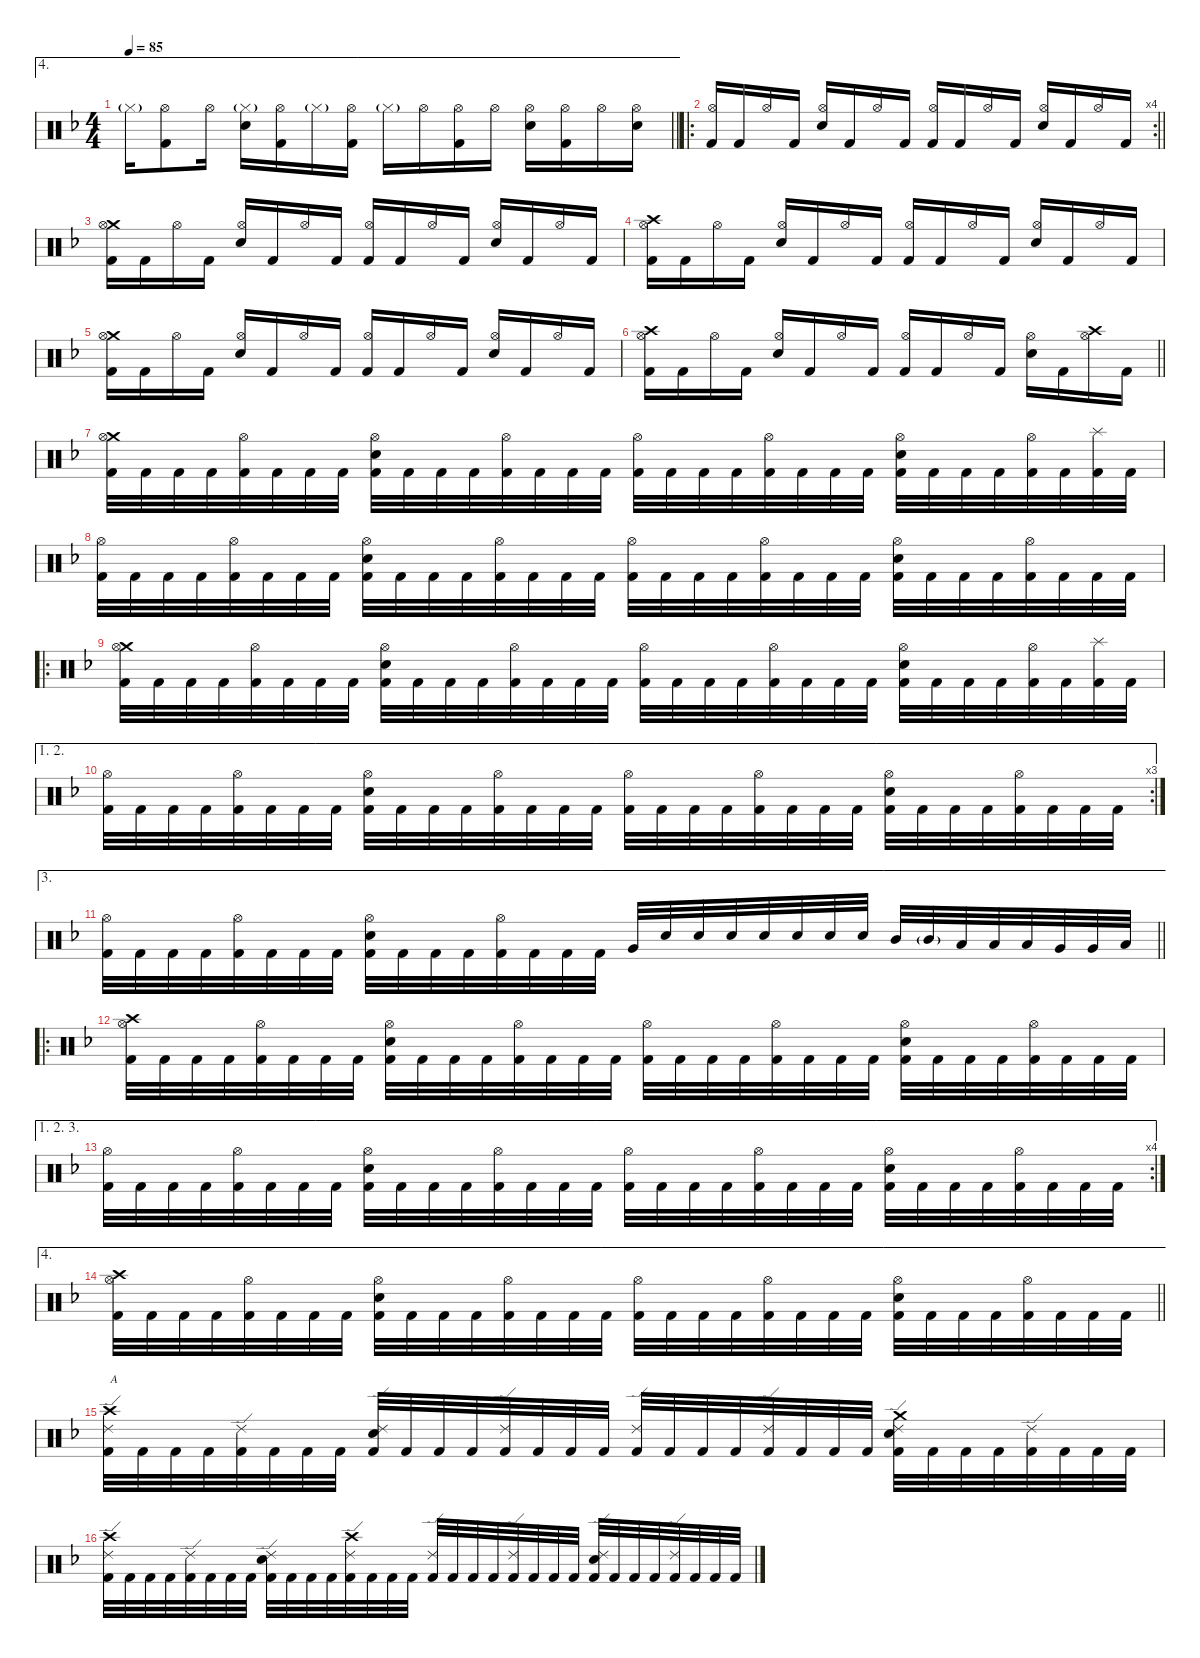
\defaultSystemsLayout 4
\hideDynamics
\bracketExtendMode nobrackets
\singleTrackTrackNamePolicy hidden
\multiTrackTrackNamePolicy hidden
\firstSystemTrackNameMode fullname
\firstSystemTrackNameOrientation horizontal
\otherSystemsTrackNameOrientation horizontal
\track ("Martin Lopez - Drums" "drm.") {instrument percussion}
\staff {score}
\articulation defaults
\ae 4
\ts (4 4)
\tempo 85
\clef neutral
\barLineRight lightlight
\ks f "Hi-Hat (closed)"{g acc forcenatural}.16{dy mf beam Down}
("Hi-Hat (open)"{acc forcenatural} "Kick (hit) 2"{acc forcenatural}).8{dy f beam Down} "Hi-Hat (open)"{acc forcenatural}.16{beam Down} ("Hi-Hat (closed)"{g acc forcenatural} "Snare (hit) 2"{acc forcenatural}).16{beam Down} ("Hi-Hat (open)"{acc forcenatural} "Kick (hit) 2"{acc forcenatural}).16{beam Down} "Hi-Hat (closed)"{g acc forcenatural}.16{dy mf beam Down} ("Hi-Hat (open)"{acc forcenatural} "Kick (hit) 2"{acc forcenatural}).16{dy f beam Down} "Hi-Hat (closed)"{g acc forcenatural}.16{dy mf beam Down} "Hi-Hat (open)"{acc forcenatural}.16{dy f beam Down} ("Hi-Hat (open)"{acc forcenatural} "Kick (hit) 2"{acc forcenatural}).16{beam Down} "Hi-Hat (open)"{acc forcenatural}.16{beam Down} ("Hi-Hat (open)"{acc forcenatural} "Snare (hit) 2"{acc forcenatural}).16{beam Down} ("Hi-Hat (open)"{acc forcenatural} "Kick (hit) 2"{acc forcenatural}).16{beam Down} "Hi-Hat (open)"{acc forcenatural}.16{beam Down} ("Hi-Hat (open)"{acc forcenatural} "Snare (hit) 2"{acc forcenatural}).16{beam Down} |
\ro
\rc 4
\barLineRight lightlight
("Hi-Hat (open)"{acc forcenatural} "Kick (hit) 2"{acc forcenatural}).16{beam Up} "Kick (hit) 2"{acc forcenatural}.16{beam Up} "Hi-Hat (open)"{acc forcenatural}.16{beam Up} "Kick (hit) 2"{acc forcenatural}.16{beam Up} ("Hi-Hat (open)"{acc forcenatural} "Snare (hit) 2"{acc forcenatural}).16{beam Up} "Kick (hit) 2"{acc forcenatural}.16{beam Up} "Hi-Hat (open)"{acc forcenatural}.16{beam Up} "Kick (hit) 2"{acc forcenatural}.16{beam Up} ("Hi-Hat (open)"{acc forcenatural} "Kick (hit) 2"{acc forcenatural}).16{beam Up} "Kick (hit) 2"{acc forcenatural}.16{beam Up} "Hi-Hat (open)"{acc forcenatural}.16{beam Up} "Kick (hit) 2"{acc forcenatural}.16{beam Up} ("Hi-Hat (open)"{acc forcenatural} "Snare (hit) 2"{acc forcenatural}).16{beam Up} "Kick (hit) 2"{acc forcenatural}.16{beam Up} "Hi-Hat (open)"{acc forcenatural}.16{beam Up} "Kick (hit) 2"{acc forcenatural}.16{beam Up} |
("Crash medium (hit)"{acc forcenatural} "Hi-Hat (open)"{acc forcenatural} "Kick (hit) 2"{acc forcenatural}).16{beam Down} "Kick (hit) 2"{acc forcenatural}.16{beam Down} "Hi-Hat (open)"{acc forcenatural}.16{beam Down} "Kick (hit) 2"{acc forcenatural}.16{beam Down} ("Hi-Hat (open)"{acc forcenatural} "Snare (hit) 2"{acc forcenatural}).16{beam Up} "Kick (hit) 2"{acc forcenatural}.16{beam Up} "Hi-Hat (open)"{acc forcenatural}.16{beam Up} "Kick (hit) 2"{acc forcenatural}.16{beam Up} ("Hi-Hat (open)"{acc forcenatural} "Kick (hit) 2"{acc forcenatural}).16{beam Up} "Kick (hit) 2"{acc forcenatural}.16{beam Up} "Hi-Hat (open)"{acc forcenatural}.16{beam Up} "Kick (hit) 2"{acc forcenatural}.16{beam Up} ("Hi-Hat (open)"{acc forcenatural} "Snare (hit) 2"{acc forcenatural}).16{beam Up} "Kick (hit) 2"{acc forcenatural}.16{beam Up} "Hi-Hat (open)"{acc forcenatural}.16{beam Up} "Kick (hit) 2"{acc forcenatural}.16{beam Up} |
("Crash high (hit)"{acc forcenatural} "Hi-Hat (open)"{acc forcenatural} "Kick (hit) 2"{acc forcenatural}).16{beam Down} "Kick (hit) 2"{acc forcenatural}.16{beam Down} "Hi-Hat (open)"{acc forcenatural}.16{beam Down} "Kick (hit) 2"{acc forcenatural}.16{beam Down} ("Hi-Hat (open)"{acc forcenatural} "Snare (hit) 2"{acc forcenatural}).16{beam Up} "Kick (hit) 2"{acc forcenatural}.16{beam Up} "Hi-Hat (open)"{acc forcenatural}.16{beam Up} "Kick (hit) 2"{acc forcenatural}.16{beam Up} ("Hi-Hat (open)"{acc forcenatural} "Kick (hit) 2"{acc forcenatural}).16{beam Up} "Kick (hit) 2"{acc forcenatural}.16{beam Up} "Hi-Hat (open)"{acc forcenatural}.16{beam Up} "Kick (hit) 2"{acc forcenatural}.16{beam Up} ("Hi-Hat (open)"{acc forcenatural} "Snare (hit) 2"{acc forcenatural}).16{beam Up} "Kick (hit) 2"{acc forcenatural}.16{beam Up} "Hi-Hat (open)"{acc forcenatural}.16{beam Up} "Kick (hit) 2"{acc forcenatural}.16{beam Up} |
("Crash medium (hit)"{acc forcenatural} "Hi-Hat (open)"{acc forcenatural} "Kick (hit) 2"{acc forcenatural}).16{beam Down} "Kick (hit) 2"{acc forcenatural}.16{beam Down} "Hi-Hat (open)"{acc forcenatural}.16{beam Down} "Kick (hit) 2"{acc forcenatural}.16{beam Down} ("Hi-Hat (open)"{acc forcenatural} "Snare (hit) 2"{acc forcenatural}).16{beam Up} "Kick (hit) 2"{acc forcenatural}.16{beam Up} "Hi-Hat (open)"{acc forcenatural}.16{beam Up} "Kick (hit) 2"{acc forcenatural}.16{beam Up} ("Hi-Hat (open)"{acc forcenatural} "Kick (hit) 2"{acc forcenatural}).16{beam Up} "Kick (hit) 2"{acc forcenatural}.16{beam Up} "Hi-Hat (open)"{acc forcenatural}.16{beam Up} "Kick (hit) 2"{acc forcenatural}.16{beam Up} ("Hi-Hat (open)"{acc forcenatural} "Snare (hit) 2"{acc forcenatural}).16{beam Up} "Kick (hit) 2"{acc forcenatural}.16{beam Up} "Hi-Hat (open)"{acc forcenatural}.16{beam Up} "Kick (hit) 2"{acc forcenatural}.16{beam Up} |
\barLineRight lightlight
("Crash high (hit)"{acc forcenatural} "Hi-Hat (open)"{acc forcenatural} "Kick (hit) 2"{acc forcenatural}).16{beam Down} "Kick (hit) 2"{acc forcenatural}.16{beam Down} "Hi-Hat (open)"{acc forcenatural}.16{beam Down} "Kick (hit) 2"{acc forcenatural}.16{beam Down} ("Hi-Hat (open)"{acc forcenatural} "Snare (hit) 2"{acc forcenatural}).16{beam Up} "Kick (hit) 2"{acc forcenatural}.16{beam Up} "Hi-Hat (open)"{acc forcenatural}.16{beam Up} "Kick (hit) 2"{acc forcenatural}.16{beam Up} ("Hi-Hat (open)"{acc forcenatural} "Kick (hit) 2"{acc forcenatural}).16{beam Up} "Kick (hit) 2"{acc forcenatural}.16{beam Up} "Hi-Hat (open)"{acc forcenatural}.16{beam Up} "Kick (hit) 2"{acc forcenatural}.16{beam Up} ("Hi-Hat (open)"{acc forcenatural} "Snare (hit) 2"{acc forcenatural}).16{beam Down} "Kick (hit) 2"{acc forcenatural}.16{beam Down} ("Crash high (hit)"{acc forcenatural} "Hi-Hat (open)"{acc forcenatural}).16{beam Down} "Kick (hit) 2"{acc forcenatural}.16{beam Down} |
("Crash medium (hit)"{acc forcenatural} "Hi-Hat (open)"{acc forcenatural} "Kick (hit) 2"{acc forcenatural}).32{beam Down} "Kick (hit) 2"{acc forcenatural}.32{beam Down} "Kick (hit) 2"{acc forcenatural}.32{beam Down} "Kick (hit) 2"{acc forcenatural}.32{beam Down} ("Hi-Hat (open)"{acc forcenatural} "Kick (hit) 2"{acc forcenatural}).32{beam Down} "Kick (hit) 2"{acc forcenatural}.32{beam Down} "Kick (hit) 2"{acc forcenatural}.32{beam Down} "Kick (hit) 2"{acc forcenatural}.32{beam Down} ("Hi-Hat (open)"{acc forcenatural} "Snare (hit) 2"{acc forcenatural} "Kick (hit) 2"{acc forcenatural}).32{beam Down} "Kick (hit) 2"{acc forcenatural}.32{beam Down} "Kick (hit) 2"{acc forcenatural}.32{beam Down} "Kick (hit) 2"{acc forcenatural}.32{beam Down} ("Hi-Hat (open)"{acc forcenatural} "Kick (hit) 2"{acc forcenatural}).32{beam Down} "Kick (hit) 2"{acc forcenatural}.32{beam Down} "Kick (hit) 2"{acc forcenatural}.32{beam Down} "Kick (hit) 2"{acc forcenatural}.32{beam Down} ("Hi-Hat (open)"{acc forcenatural} "Kick (hit) 2"{acc forcenatural}).32{beam Down} "Kick (hit) 2"{acc forcenatural}.32{beam Down} "Kick (hit) 2"{acc forcenatural}.32{beam Down} "Kick (hit) 2"{acc forcenatural}.32{beam Down} ("Hi-Hat (open)"{acc forcenatural} "Kick (hit) 2"{acc forcenatural}).32{beam Down} "Kick (hit) 2"{acc forcenatural}.32{beam Down} "Kick (hit) 2"{acc forcenatural}.32{beam Down} "Kick (hit) 2"{acc forcenatural}.32{beam Down} ("Hi-Hat (open)"{acc forcenatural} "Snare (hit) 2"{acc forcenatural} "Kick (hit) 2"{acc forcenatural}).32{beam Down} "Kick (hit) 2"{acc forcenatural}.32{beam Down} "Kick (hit) 2"{acc forcenatural}.32{beam Down} "Kick (hit) 2"{acc forcenatural}.32{beam Down} ("Hi-Hat (open)"{acc forcenatural} "Kick (hit) 2"{acc forcenatural}).32{beam Down} "Kick (hit) 2"{acc forcenatural}.32{beam Down} ("Splash (hit)"{acc forcenatural} "Kick (hit) 2"{acc forcenatural}).32{beam Down} "Kick (hit) 2"{acc forcenatural}.32{beam Down} |
("Hi-Hat (open)"{acc forcenatural} "Kick (hit) 2"{acc forcenatural}).32{beam Down} "Kick (hit) 2"{acc forcenatural}.32{beam Down} "Kick (hit) 2"{acc forcenatural}.32{beam Down} "Kick (hit) 2"{acc forcenatural}.32{beam Down} ("Hi-Hat (open)"{acc forcenatural} "Kick (hit) 2"{acc forcenatural}).32{beam Down} "Kick (hit) 2"{acc forcenatural}.32{beam Down} "Kick (hit) 2"{acc forcenatural}.32{beam Down} "Kick (hit) 2"{acc forcenatural}.32{beam Down} ("Hi-Hat (open)"{acc forcenatural} "Snare (hit) 2"{acc forcenatural} "Kick (hit) 2"{acc forcenatural}).32{beam Down} "Kick (hit) 2"{acc forcenatural}.32{beam Down} "Kick (hit) 2"{acc forcenatural}.32{beam Down} "Kick (hit) 2"{acc forcenatural}.32{beam Down} ("Hi-Hat (open)"{acc forcenatural} "Kick (hit) 2"{acc forcenatural}).32{beam Down} "Kick (hit) 2"{acc forcenatural}.32{beam Down} "Kick (hit) 2"{acc forcenatural}.32{beam Down} "Kick (hit) 2"{acc forcenatural}.32{beam Down} ("Hi-Hat (open)"{acc forcenatural} "Kick (hit) 2"{acc forcenatural}).32{beam Down} "Kick (hit) 2"{acc forcenatural}.32{beam Down} "Kick (hit) 2"{acc forcenatural}.32{beam Down} "Kick (hit) 2"{acc forcenatural}.32{beam Down} ("Hi-Hat (open)"{acc forcenatural} "Kick (hit) 2"{acc forcenatural}).32{beam Down} "Kick (hit) 2"{acc forcenatural}.32{beam Down} "Kick (hit) 2"{acc forcenatural}.32{beam Down} "Kick (hit) 2"{acc forcenatural}.32{beam Down} ("Hi-Hat (open)"{acc forcenatural} "Snare (hit) 2"{acc forcenatural} "Kick (hit) 2"{acc forcenatural}).32{beam Down} "Kick (hit) 2"{acc forcenatural}.32{beam Down} "Kick (hit) 2"{acc forcenatural}.32{beam Down} "Kick (hit) 2"{acc forcenatural}.32{beam Down} ("Hi-Hat (open)"{acc forcenatural} "Kick (hit) 2"{acc forcenatural}).32{beam Down} "Kick (hit) 2"{acc forcenatural}.32{beam Down} "Kick (hit) 2"{acc forcenatural}.32{beam Down} "Kick (hit) 2"{acc forcenatural}.32{beam Down} |
\ro
("Crash medium (hit)"{acc forcenatural} "Hi-Hat (open)"{acc forcenatural} "Kick (hit) 2"{acc forcenatural}).32{beam Down} "Kick (hit) 2"{acc forcenatural}.32{beam Down} "Kick (hit) 2"{acc forcenatural}.32{beam Down} "Kick (hit) 2"{acc forcenatural}.32{beam Down} ("Hi-Hat (open)"{acc forcenatural} "Kick (hit) 2"{acc forcenatural}).32{beam Down} "Kick (hit) 2"{acc forcenatural}.32{beam Down} "Kick (hit) 2"{acc forcenatural}.32{beam Down} "Kick (hit) 2"{acc forcenatural}.32{beam Down} ("Hi-Hat (open)"{acc forcenatural} "Snare (hit) 2"{acc forcenatural} "Kick (hit) 2"{acc forcenatural}).32{beam Down} "Kick (hit) 2"{acc forcenatural}.32{beam Down} "Kick (hit) 2"{acc forcenatural}.32{beam Down} "Kick (hit) 2"{acc forcenatural}.32{beam Down} ("Hi-Hat (open)"{acc forcenatural} "Kick (hit) 2"{acc forcenatural}).32{beam Down} "Kick (hit) 2"{acc forcenatural}.32{beam Down} "Kick (hit) 2"{acc forcenatural}.32{beam Down} "Kick (hit) 2"{acc forcenatural}.32{beam Down} ("Hi-Hat (open)"{acc forcenatural} "Kick (hit) 2"{acc forcenatural}).32{beam Down} "Kick (hit) 2"{acc forcenatural}.32{beam Down} "Kick (hit) 2"{acc forcenatural}.32{beam Down} "Kick (hit) 2"{acc forcenatural}.32{beam Down} ("Hi-Hat (open)"{acc forcenatural} "Kick (hit) 2"{acc forcenatural}).32{beam Down} "Kick (hit) 2"{acc forcenatural}.32{beam Down} "Kick (hit) 2"{acc forcenatural}.32{beam Down} "Kick (hit) 2"{acc forcenatural}.32{beam Down} ("Hi-Hat (open)"{acc forcenatural} "Snare (hit) 2"{acc forcenatural} "Kick (hit) 2"{acc forcenatural}).32{beam Down} "Kick (hit) 2"{acc forcenatural}.32{beam Down} "Kick (hit) 2"{acc forcenatural}.32{beam Down} "Kick (hit) 2"{acc forcenatural}.32{beam Down} ("Hi-Hat (open)"{acc forcenatural} "Kick (hit) 2"{acc forcenatural}).32{beam Down} "Kick (hit) 2"{acc forcenatural}.32{beam Down} ("Splash (hit)"{acc forcenatural} "Kick (hit) 2"{acc forcenatural}).32{beam Down} "Kick (hit) 2"{acc forcenatural}.32{beam Down} |
\ae (1 2)
\rc 3
("Hi-Hat (open)"{acc forcenatural} "Kick (hit) 2"{acc forcenatural}).32{beam Down} "Kick (hit) 2"{acc forcenatural}.32{beam Down} "Kick (hit) 2"{acc forcenatural}.32{beam Down} "Kick (hit) 2"{acc forcenatural}.32{beam Down} ("Hi-Hat (open)"{acc forcenatural} "Kick (hit) 2"{acc forcenatural}).32{beam Down} "Kick (hit) 2"{acc forcenatural}.32{beam Down} "Kick (hit) 2"{acc forcenatural}.32{beam Down} "Kick (hit) 2"{acc forcenatural}.32{beam Down} ("Hi-Hat (open)"{acc forcenatural} "Snare (hit) 2"{acc forcenatural} "Kick (hit) 2"{acc forcenatural}).32{beam Down} "Kick (hit) 2"{acc forcenatural}.32{beam Down} "Kick (hit) 2"{acc forcenatural}.32{beam Down} "Kick (hit) 2"{acc forcenatural}.32{beam Down} ("Hi-Hat (open)"{acc forcenatural} "Kick (hit) 2"{acc forcenatural}).32{beam Down} "Kick (hit) 2"{acc forcenatural}.32{beam Down} "Kick (hit) 2"{acc forcenatural}.32{beam Down} "Kick (hit) 2"{acc forcenatural}.32{beam Down} ("Hi-Hat (open)"{acc forcenatural} "Kick (hit) 2"{acc forcenatural}).32{beam Down} "Kick (hit) 2"{acc forcenatural}.32{beam Down} "Kick (hit) 2"{acc forcenatural}.32{beam Down} "Kick (hit) 2"{acc forcenatural}.32{beam Down} ("Hi-Hat (open)"{acc forcenatural} "Kick (hit) 2"{acc forcenatural}).32{beam Down} "Kick (hit) 2"{acc forcenatural}.32{beam Down} "Kick (hit) 2"{acc forcenatural}.32{beam Down} "Kick (hit) 2"{acc forcenatural}.32{beam Down} ("Hi-Hat (open)"{acc forcenatural} "Snare (hit) 2"{acc forcenatural} "Kick (hit) 2"{acc forcenatural}).32{beam Down} "Kick (hit) 2"{acc forcenatural}.32{beam Down} "Kick (hit) 2"{acc forcenatural}.32{beam Down} "Kick (hit) 2"{acc forcenatural}.32{beam Down} ("Hi-Hat (open)"{acc forcenatural} "Kick (hit) 2"{acc forcenatural}).32{beam Down} "Kick (hit) 2"{acc forcenatural}.32{beam Down} "Kick (hit) 2"{acc forcenatural}.32{beam Down} "Kick (hit) 2"{acc forcenatural}.32{beam Down} |
\ae 3
\barLineRight lightlight
("Hi-Hat (open)"{acc forcenatural} "Kick (hit) 2"{acc forcenatural}).32{beam Down} "Kick (hit) 2"{acc forcenatural}.32{beam Down} "Kick (hit) 2"{acc forcenatural}.32{beam Down} "Kick (hit) 2"{acc forcenatural}.32{beam Down} ("Hi-Hat (open)"{acc forcenatural} "Kick (hit) 2"{acc forcenatural}).32{beam Down} "Kick (hit) 2"{acc forcenatural}.32{beam Down} "Kick (hit) 2"{acc forcenatural}.32{beam Down} "Kick (hit) 2"{acc forcenatural}.32{beam Down} ("Hi-Hat (open)"{acc forcenatural} "Snare (hit) 2"{acc forcenatural} "Kick (hit) 2"{acc forcenatural}).32{beam Down} "Kick (hit) 2"{acc forcenatural}.32{beam Down} "Kick (hit) 2"{acc forcenatural}.32{beam Down} "Kick (hit) 2"{acc forcenatural}.32{beam Down} ("Hi-Hat (open)"{acc forcenatural} "Kick (hit) 2"{acc forcenatural}).32{beam Down} "Kick (hit) 2"{acc forcenatural}.32{beam Down} "Kick (hit) 2"{acc forcenatural}.32{beam Down} "Kick (hit) 2"{acc forcenatural}.32{beam Down} "Very Low Tom (hit)"{acc forcenatural}.32{beam Up} "Snare (hit) 2"{acc forcenatural}.32{beam Up} "Snare (hit) 2"{acc forcenatural}.32{beam Up} "Snare (hit) 2"{acc forcenatural}.32{beam Up} "Snare (hit) 2"{acc forcenatural}.32{beam Up} "Snare (hit) 2"{acc forcenatural}.32{beam Up} "Snare (hit) 2"{acc forcenatural}.32{beam Up} "Snare (hit) 2"{acc forcenatural}.32{beam Up} "Mid Tom (hit)"{acc forcenatural}.32{beam Up} "Mid Tom (hit)"{g acc forcenatural}.32{dy mf beam Up} "Low Tom (hit)"{acc forcenatural}.32{dy f beam Up} "Low Tom (hit)"{acc forcenatural}.32{beam Up} "Low Tom (hit)"{acc forcenatural}.32{beam Up} "Very Low Tom (hit)"{acc forcenatural}.32{beam Up} "Very Low Tom (hit)"{acc forcenatural}.32{beam Up} "Low Floor Tom (hit)"{acc forcenatural}.32{beam Up} |
\ro
("Crash high (hit)"{acc forcenatural} "Hi-Hat (open)"{acc forcenatural} "Kick (hit) 2"{acc forcenatural}).32{beam Down} "Kick (hit) 2"{acc forcenatural}.32{beam Down} "Kick (hit) 2"{acc forcenatural}.32{beam Down} "Kick (hit) 2"{acc forcenatural}.32{beam Down} ("Hi-Hat (open)"{acc forcenatural} "Kick (hit) 2"{acc forcenatural}).32{beam Down} "Kick (hit) 2"{acc forcenatural}.32{beam Down} "Kick (hit) 2"{acc forcenatural}.32{beam Down} "Kick (hit) 2"{acc forcenatural}.32{beam Down} ("Hi-Hat (open)"{acc forcenatural} "Snare (hit) 2"{acc forcenatural} "Kick (hit) 2"{acc forcenatural}).32{beam Down} "Kick (hit) 2"{acc forcenatural}.32{beam Down} "Kick (hit) 2"{acc forcenatural}.32{beam Down} "Kick (hit) 2"{acc forcenatural}.32{beam Down} ("Hi-Hat (open)"{acc forcenatural} "Kick (hit) 2"{acc forcenatural}).32{beam Down} "Kick (hit) 2"{acc forcenatural}.32{beam Down} "Kick (hit) 2"{acc forcenatural}.32{beam Down} "Kick (hit) 2"{acc forcenatural}.32{beam Down} ("Hi-Hat (open)"{acc forcenatural} "Kick (hit) 2"{acc forcenatural}).32{beam Down} "Kick (hit) 2"{acc forcenatural}.32{beam Down} "Kick (hit) 2"{acc forcenatural}.32{beam Down} "Kick (hit) 2"{acc forcenatural}.32{beam Down} ("Hi-Hat (open)"{acc forcenatural} "Kick (hit) 2"{acc forcenatural}).32{beam Down} "Kick (hit) 2"{acc forcenatural}.32{beam Down} "Kick (hit) 2"{acc forcenatural}.32{beam Down} "Kick (hit) 2"{acc forcenatural}.32{beam Down} ("Hi-Hat (open)"{acc forcenatural} "Snare (hit) 2"{acc forcenatural} "Kick (hit) 2"{acc forcenatural}).32{beam Down} "Kick (hit) 2"{acc forcenatural}.32{beam Down} "Kick (hit) 2"{acc forcenatural}.32{beam Down} "Kick (hit) 2"{acc forcenatural}.32{beam Down} ("Hi-Hat (open)"{acc forcenatural} "Kick (hit) 2"{acc forcenatural}).32{beam Down} "Kick (hit) 2"{acc forcenatural}.32{beam Down} "Kick (hit) 2"{acc forcenatural}.32{beam Down} "Kick (hit) 2"{acc forcenatural}.32{beam Down} |
\ae (1 2 3)
\rc 4
("Hi-Hat (open)"{acc forcenatural} "Kick (hit) 2"{acc forcenatural}).32{beam Down} "Kick (hit) 2"{acc forcenatural}.32{beam Down} "Kick (hit) 2"{acc forcenatural}.32{beam Down} "Kick (hit) 2"{acc forcenatural}.32{beam Down} ("Hi-Hat (open)"{acc forcenatural} "Kick (hit) 2"{acc forcenatural}).32{beam Down} "Kick (hit) 2"{acc forcenatural}.32{beam Down} "Kick (hit) 2"{acc forcenatural}.32{beam Down} "Kick (hit) 2"{acc forcenatural}.32{beam Down} ("Hi-Hat (open)"{acc forcenatural} "Snare (hit) 2"{acc forcenatural} "Kick (hit) 2"{acc forcenatural}).32{beam Down} "Kick (hit) 2"{acc forcenatural}.32{beam Down} "Kick (hit) 2"{acc forcenatural}.32{beam Down} "Kick (hit) 2"{acc forcenatural}.32{beam Down} ("Hi-Hat (open)"{acc forcenatural} "Kick (hit) 2"{acc forcenatural}).32{beam Down} "Kick (hit) 2"{acc forcenatural}.32{beam Down} "Kick (hit) 2"{acc forcenatural}.32{beam Down} "Kick (hit) 2"{acc forcenatural}.32{beam Down} ("Hi-Hat (open)"{acc forcenatural} "Kick (hit) 2"{acc forcenatural}).32{beam Down} "Kick (hit) 2"{acc forcenatural}.32{beam Down} "Kick (hit) 2"{acc forcenatural}.32{beam Down} "Kick (hit) 2"{acc forcenatural}.32{beam Down} ("Hi-Hat (open)"{acc forcenatural} "Kick (hit) 2"{acc forcenatural}).32{beam Down} "Kick (hit) 2"{acc forcenatural}.32{beam Down} "Kick (hit) 2"{acc forcenatural}.32{beam Down} "Kick (hit) 2"{acc forcenatural}.32{beam Down} ("Hi-Hat (open)"{acc forcenatural} "Snare (hit) 2"{acc forcenatural} "Kick (hit) 2"{acc forcenatural}).32{beam Down} "Kick (hit) 2"{acc forcenatural}.32{beam Down} "Kick (hit) 2"{acc forcenatural}.32{beam Down} "Kick (hit) 2"{acc forcenatural}.32{beam Down} ("Hi-Hat (open)"{acc forcenatural} "Kick (hit) 2"{acc forcenatural}).32{beam Down} "Kick (hit) 2"{acc forcenatural}.32{beam Down} "Kick (hit) 2"{acc forcenatural}.32{beam Down} "Kick (hit) 2"{acc forcenatural}.32{beam Down} |
\ae 4
\barLineRight lightlight
("Crash high (hit)"{acc forcenatural} "Hi-Hat (open)"{acc forcenatural} "Kick (hit) 2"{acc forcenatural}).32{beam Down} "Kick (hit) 2"{acc forcenatural}.32{beam Down} "Kick (hit) 2"{acc forcenatural}.32{beam Down} "Kick (hit) 2"{acc forcenatural}.32{beam Down} ("Hi-Hat (open)"{acc forcenatural} "Kick (hit) 2"{acc forcenatural}).32{beam Down} "Kick (hit) 2"{acc forcenatural}.32{beam Down} "Kick (hit) 2"{acc forcenatural}.32{beam Down} "Kick (hit) 2"{acc forcenatural}.32{beam Down} ("Hi-Hat (open)"{acc forcenatural} "Snare (hit) 2"{acc forcenatural} "Kick (hit) 2"{acc forcenatural}).32{beam Down} "Kick (hit) 2"{acc forcenatural}.32{beam Down} "Kick (hit) 2"{acc forcenatural}.32{beam Down} "Kick (hit) 2"{acc forcenatural}.32{beam Down} ("Hi-Hat (open)"{acc forcenatural} "Kick (hit) 2"{acc forcenatural}).32{beam Down} "Kick (hit) 2"{acc forcenatural}.32{beam Down} "Kick (hit) 2"{acc forcenatural}.32{beam Down} "Kick (hit) 2"{acc forcenatural}.32{beam Down} ("Hi-Hat (open)"{acc forcenatural} "Kick (hit) 2"{acc forcenatural}).32{beam Down} "Kick (hit) 2"{acc forcenatural}.32{beam Down} "Kick (hit) 2"{acc forcenatural}.32{beam Down} "Kick (hit) 2"{acc forcenatural}.32{beam Down} ("Hi-Hat (open)"{acc forcenatural} "Kick (hit) 2"{acc forcenatural}).32{beam Down} "Kick (hit) 2"{acc forcenatural}.32{beam Down} "Kick (hit) 2"{acc forcenatural}.32{beam Down} "Kick (hit) 2"{acc forcenatural}.32{beam Down} ("Hi-Hat (open)"{acc forcenatural} "Snare (hit) 2"{acc forcenatural} "Kick (hit) 2"{acc forcenatural}).32{beam Down} "Kick (hit) 2"{acc forcenatural}.32{beam Down} "Kick (hit) 2"{acc forcenatural}.32{beam Down} "Kick (hit) 2"{acc forcenatural}.32{beam Down} ("Hi-Hat (open)"{acc forcenatural} "Kick (hit) 2"{acc forcenatural}).32{beam Down} "Kick (hit) 2"{acc forcenatural}.32{beam Down} "Kick (hit) 2"{acc forcenatural}.32{beam Down} "Kick (hit) 2"{acc forcenatural}.32{beam Down} |
("Crash high (hit)"{acc forcenatural} "Ride (edge) 2"{acc forcenatural} "Kick (hit) 2"{acc forcenatural}).32{txt "A" beam Down} "Kick (hit) 2"{acc forcenatural}.32{beam Down} "Kick (hit) 2"{acc forcenatural}.32{beam Down} "Kick (hit) 2"{acc forcenatural}.32{beam Down} ("Ride (edge) 2"{acc forcenatural} "Kick (hit) 2"{acc forcenatural}).32{beam Down} "Kick (hit) 2"{acc forcenatural}.32{beam Down} "Kick (hit) 2"{acc forcenatural}.32{beam Down} "Kick (hit) 2"{acc forcenatural}.32{beam Down} ("Ride (edge) 2"{acc forcenatural} "Snare (hit) 2"{acc forcenatural} "Kick (hit) 2"{acc forcenatural}).32{beam Up} "Kick (hit) 2"{acc forcenatural}.32{beam Up} "Kick (hit) 2"{acc forcenatural}.32{beam Up} "Kick (hit) 2"{acc forcenatural}.32{beam Up} ("Ride (edge) 2"{acc forcenatural} "Kick (hit) 2"{acc forcenatural}).32{beam Up} "Kick (hit) 2"{acc forcenatural}.32{beam Up} "Kick (hit) 2"{acc forcenatural}.32{beam Up} "Kick (hit) 2"{acc forcenatural}.32{beam Up} ("Ride (edge) 2"{acc forcenatural} "Kick (hit) 2"{acc forcenatural}).32{beam Up} "Kick (hit) 2"{acc forcenatural}.32{beam Up} "Kick (hit) 2"{acc forcenatural}.32{beam Up} "Kick (hit) 2"{acc forcenatural}.32{beam Up} ("Ride (edge) 2"{acc forcenatural} "Kick (hit) 2"{acc forcenatural}).32{beam Up} "Kick (hit) 2"{acc forcenatural}.32{beam Up} "Kick (hit) 2"{acc forcenatural}.32{beam Up} "Kick (hit) 2"{acc forcenatural}.32{beam Up} ("Crash medium (hit)"{acc forcenatural} "Ride (edge) 2"{acc forcenatural} "Snare (hit) 2"{acc forcenatural} "Kick (hit) 2"{acc forcenatural}).32{beam Down} "Kick (hit) 2"{acc forcenatural}.32{beam Down} "Kick (hit) 2"{acc forcenatural}.32{beam Down} "Kick (hit) 2"{acc forcenatural}.32{beam Down} ("Ride (edge) 2"{acc forcenatural} "Kick (hit) 2"{acc forcenatural}).32{beam Down} "Kick (hit) 2"{acc forcenatural}.32{beam Down} "Kick (hit) 2"{acc forcenatural}.32{beam Down} "Kick (hit) 2"{acc forcenatural}.32{beam Down} |
("Crash high (hit)"{acc forcenatural} "Ride (edge) 2"{acc forcenatural} "Kick (hit) 2"{acc forcenatural}).32{beam Down} "Kick (hit) 2"{acc forcenatural}.32{beam Down} "Kick (hit) 2"{acc forcenatural}.32{beam Down} "Kick (hit) 2"{acc forcenatural}.32{beam Down} ("Ride (edge) 2"{acc forcenatural} "Kick (hit) 2"{acc forcenatural}).32{beam Down} "Kick (hit) 2"{acc forcenatural}.32{beam Down} "Kick (hit) 2"{acc forcenatural}.32{beam Down} "Kick (hit) 2"{acc forcenatural}.32{beam Down} ("Ride (edge) 2"{acc forcenatural} "Snare (hit) 2"{acc forcenatural} "Kick (hit) 2"{acc forcenatural}).32{beam Down} "Kick (hit) 2"{acc forcenatural}.32{beam Down} "Kick (hit) 2"{acc forcenatural}.32{beam Down} "Kick (hit) 2"{acc forcenatural}.32{beam Down} ("Crash high (hit)"{acc forcenatural} "Ride (edge) 2"{acc forcenatural} "Kick (hit) 2"{acc forcenatural}).32{beam Down} "Kick (hit) 2"{acc forcenatural}.32{beam Down} "Kick (hit) 2"{acc forcenatural}.32{beam Down} "Kick (hit) 2"{acc forcenatural}.32{beam Down} ("Ride (edge) 2"{acc forcenatural} "Kick (hit) 2"{acc forcenatural}).32{beam Up} "Kick (hit) 2"{acc forcenatural}.32{beam Up} "Kick (hit) 2"{acc forcenatural}.32{beam Up} "Kick (hit) 2"{acc forcenatural}.32{beam Up} ("Ride (edge) 2"{acc forcenatural} "Kick (hit) 2"{acc forcenatural}).32{beam Up} "Kick (hit) 2"{acc forcenatural}.32{beam Up} "Kick (hit) 2"{acc forcenatural}.32{beam Up} "Kick (hit) 2"{acc forcenatural}.32{beam Up} ("Ride (edge) 2"{acc forcenatural} "Snare (hit) 2"{acc forcenatural} "Kick (hit) 2"{acc forcenatural}).32{beam Up} "Kick (hit) 2"{acc forcenatural}.32{beam Up} "Kick (hit) 2"{acc forcenatural}.32{beam Up} "Kick (hit) 2"{acc forcenatural}.32{beam Up} ("Ride (edge) 2"{acc forcenatural} "Kick (hit) 2"{acc forcenatural}).32{beam Up} "Kick (hit) 2"{acc forcenatural}.32{beam Up} "Kick (hit) 2"{acc forcenatural}.32{beam Up} "Kick (hit) 2"{acc forcenatural}.32{beam Up}
